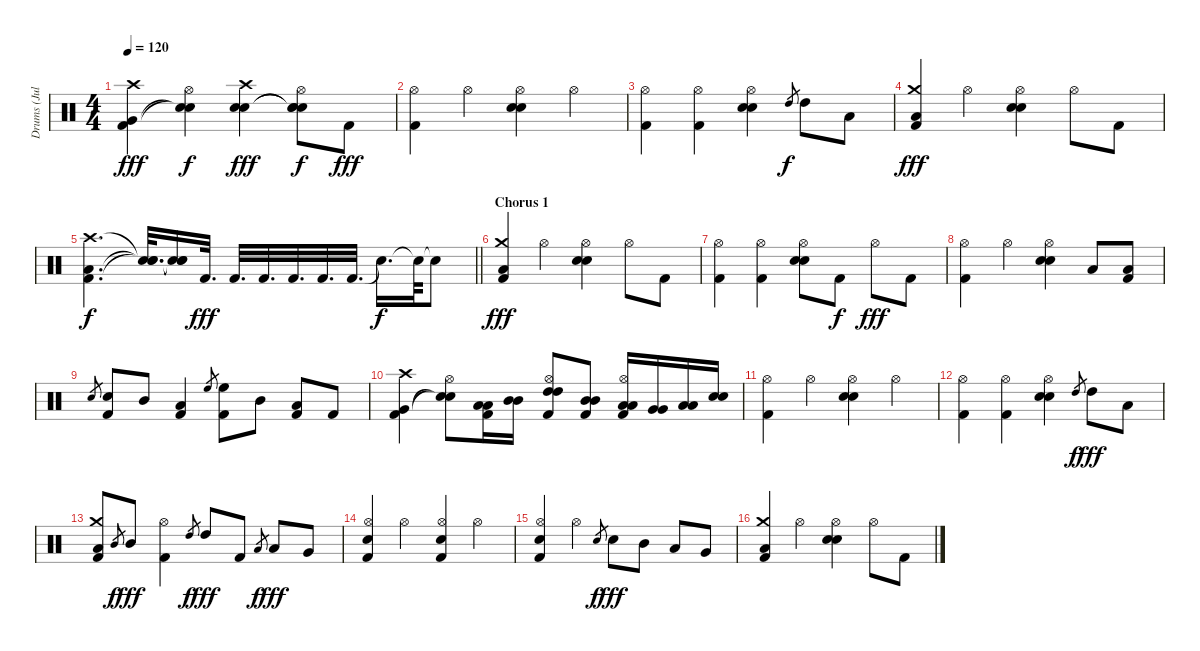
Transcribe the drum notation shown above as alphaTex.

\track ("Drums (Julian Del Rosario)" "Drums (Jul") {instrument percussion}
\staff {score}
\articulation defaults
\ts (4 4)
\tempo 120
\clef neutral
\ks c
("Crash high (hit)" "Very Low Tom (hit)" "Kick (hit) 2").4{dy fff} ("Hi-Hat (open)" "Snare (hit)"{t} "Snare (hit)"{t}).4{dy f} ("Crash high (hit)" "Snare (hit) 2" "Electric Snare (hit)").4{dy fff} ("Hi-Hat (open)" "Snare (hit)"{t} "Snare (hit)"{t} "Snare (hit)").8{dy f} "Kick (hit) 2".8{dy fff} |
("Hi-Hat (open)" "Kick (hit) 2").4 "Hi-Hat (open)".4 ("Hi-Hat (open)" "Snare (hit) 2" "Electric Snare (hit)").4 "Hi-Hat (open)".4 |
("Hi-Hat (open)" "Kick (hit) 2").4 ("Hi-Hat (open)" "Kick (hit) 2").4 ("Hi-Hat (open)" "Snare (hit) 2" "Electric Snare (hit)").4 "High Tom (hit)".8{gr dy f} "High Tom (hit)".8 "Low Tom (hit)".8 |
("Crash medium (hit)" "Low Floor Tom (hit)" "Kick (hit) 2").4{dy fff} "Hi-Hat (open)".4 ("Hi-Hat (open)" "Snare (hit) 2" "Electric Snare (hit)").4 "Hi-Hat (open)".8 "Kick (hit) 2".8 |
\barLineRight lightlight
("Crash high (hit)" "Low Tom (hit)" "Kick (hit) 2").4{d dy f} ("Snare (hit)"{t} "Snare (hit)"{t} "Snare (hit)"{t}).32{d} ("Snare (hit)"{t} "Snare (hit)"{t} "Snare (hit)"{t}).16 "Kick (hit) 2".32{d dy fff balance 4} "Kick (hit) 2".32{d balance 6} "Kick (hit) 2".32{d balance 8} "Kick (hit) 2".32{d balance 10} "Kick (hit) 2".32{d balance 12} "Kick (hit) 2".32{d balance 10} "Snare (hit)"{t}.16{d dy f} "Snare (hit)"{t}.64 "Snare (hit)"{t}.8 |
\section ("" "Chorus 1")
("Crash medium (hit)" "Low Floor Tom (hit)" "Kick (hit) 2").4{dy fff balance 8} "Hi-Hat (open)".4 ("Hi-Hat (open)" "Snare (hit) 2" "Electric Snare (hit)").4 "Hi-Hat (open)".8 "Kick (hit) 2".8 |
("Hi-Hat (open)" "Kick (hit) 2").4 ("Hi-Hat (open)" "Kick (hit) 2").4 ("Hi-Hat (open)" "Snare (hit) 2" "Electric Snare (hit)").8 "Kick (hit) 2".8{dy f} "Hi-Hat (open)".8{dy fff} "Kick (hit) 2".8 |
("Hi-Hat (open)" "Kick (hit) 2").4 "Hi-Hat (open)".4 ("Hi-Hat (open)" "Snare (hit) 2" "Electric Snare (hit)").4 "Low Floor Tom (hit)".8 ("Low Floor Tom (hit)" "Kick (hit) 2").8 |
"Snare (hit) 2".8{gr} ("Snare (hit) 2" "Kick (hit) 2").8{volume 10} "Mid Tom (hit)".8 ("Low Tom (hit)" "Kick (hit) 2").4 "High Floor Tom (hit)".8{gr} ("High Floor Tom (hit)" "Kick (hit) 2").8 "Mid Tom (hit)".8 ("Low Tom (hit)" "Kick (hit) 2").8 "Kick (hit) 2".8 |
("Crash high (hit)" "Very Low Tom (hit)" "Kick (hit) 2").4 ("Hi-Hat (open)" "Snare (hit)"{t} "Snare (hit)"{t}).8 ("Low Tom (hit)" "Low Tom (hit)" "Kick (hit) 2").16 ("Mid Tom (hit)" "Mid Tom (hit)").16 ("Hi-Hat (open)" "High Tom (hit)" "High Tom (hit)" "Kick (hit) 2").8 ("Mid Tom (hit)" "Mid Tom (hit)" "Kick (hit) 2").8 ("Hi-Hat (open)" "Low Tom (hit)" "Low Tom (hit)" "Kick (hit) 2").16 ("Very Low Tom (hit)" "Very Low Tom (hit)").16 ("Low Floor Tom (hit)" "Low Floor Tom (hit)").16 ("Snare (hit) 2" "Snare (hit) 2").16 |
("Hi-Hat (open)" "Kick (hit) 2").4{volume 6} "Hi-Hat (open)".4 ("Hi-Hat (open)" "Snare (hit) 2" "Electric Snare (hit)").4 "Hi-Hat (open)".4 |
("Hi-Hat (open)" "Kick (hit) 2").4 ("Hi-Hat (open)" "Kick (hit) 2").4 ("Hi-Hat (open)" "Snare (hit) 2" "Electric Snare (hit)").4 "High Tom (hit)".8{gr dy f} "High Tom (hit)".8{dy fff} "Low Tom (hit)".8 |
("Crash medium (hit)" "Low Floor Tom (hit)" "Kick (hit) 2").8 "Mid Tom (hit)".8{gr dy f} "Mid Tom (hit)".8{dy fff} ("Hi-Hat (open)" "Kick (hit) 2").4 "High Tom (hit)".8{gr dy f} "High Tom (hit)".8{dy fff} "Kick (hit) 2".8 "Low Tom (hit)".8{gr dy f} "Low Tom (hit)".8{dy fff} "Very Low Tom (hit)".8 |
("Hi-Hat (open)" "Snare (hit) 2" "Kick (hit) 2").4 "Hi-Hat (open)".4 ("Hi-Hat (open)" "Electric Snare (hit)" "Kick (hit) 2").4 "Hi-Hat (open)".4 |
("Hi-Hat (open)" "Snare (hit) 2" "Kick (hit) 2").4 "Hi-Hat (open)".4 "Snare (hit) 2".8{gr dy f} "Snare (hit) 2".8{dy fff} "Mid Tom (hit)".8 "Low Tom (hit)".8 "Very Low Tom (hit)".8 |
("Crash medium (hit)" "Low Floor Tom (hit)" "Kick (hit) 2").4 "Hi-Hat (open)".4 ("Hi-Hat (open)" "Snare (hit) 2" "Electric Snare (hit)").4 "Hi-Hat (open)".8 "Kick (hit) 2".8
